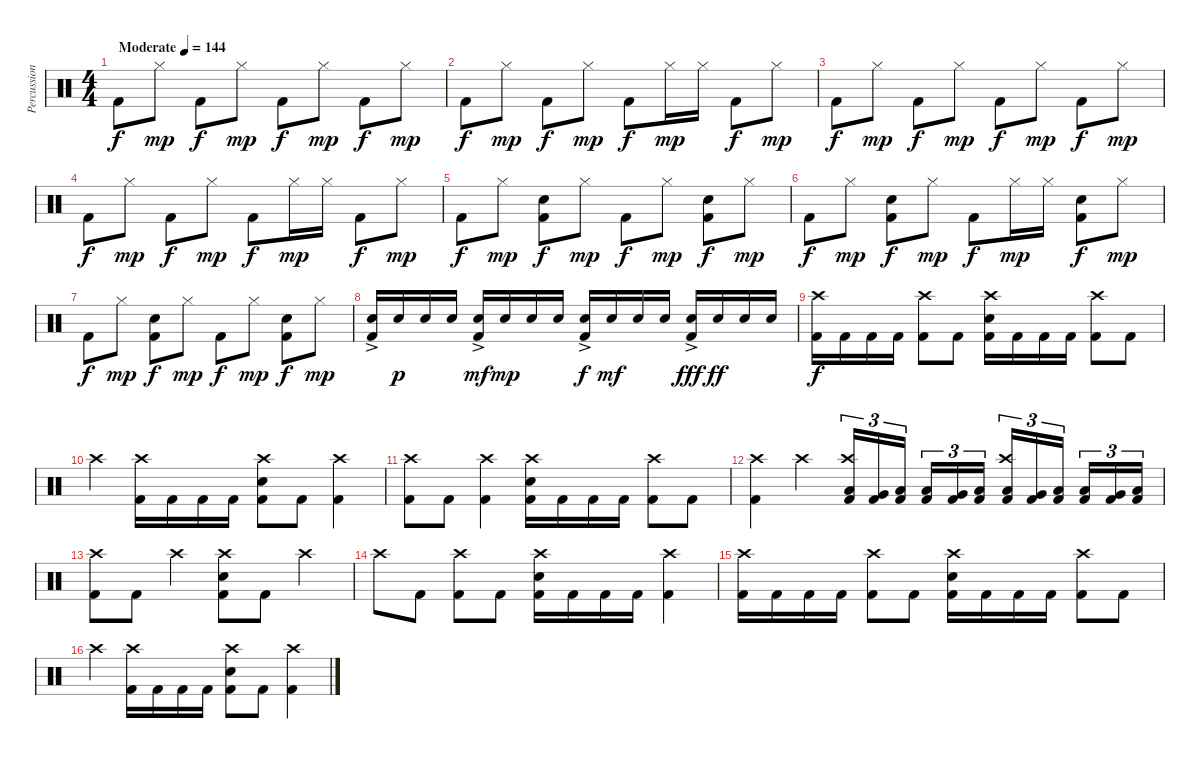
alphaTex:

\track ("Percussion" "Percussion") {instrument percussion}
\staff {score}
\articulation defaults
\ts (4 4)
\tempo (144 "Moderate")
\clef neutral
\ks c "Kick (hit) 2".8{dy f} "Hi-Hat (closed)".8{dy mp} "Kick (hit) 2".8{dy f} "Hi-Hat (closed)".8{dy mp} "Kick (hit) 2".8{dy f} "Hi-Hat (closed)".8{dy mp} "Kick (hit) 2".8{dy f} "Hi-Hat (closed)".8{dy mp}
|
"Kick (hit) 2".8{dy f} "Hi-Hat (closed)".8{dy mp} "Kick (hit) 2".8{dy f} "Hi-Hat (closed)".8{dy mp} "Kick (hit) 2".8{dy f} "Hi-Hat (closed)".16{dy mp} "Hi-Hat (closed)".16 "Kick (hit) 2".8{dy f} "Hi-Hat (closed)".8{dy mp} |
"Kick (hit) 2".8{dy f} "Hi-Hat (closed)".8{dy mp} "Kick (hit) 2".8{dy f} "Hi-Hat (closed)".8{dy mp} "Kick (hit) 2".8{dy f} "Hi-Hat (closed)".8{dy mp} "Kick (hit) 2".8{dy f} "Hi-Hat (closed)".8{dy mp} |
"Kick (hit) 2".8{dy f} "Hi-Hat (closed)".8{dy mp} "Kick (hit) 2".8{dy f} "Hi-Hat (closed)".8{dy mp} "Kick (hit) 2".8{dy f} "Hi-Hat (closed)".16{dy mp} "Hi-Hat (closed)".16 "Kick (hit) 2".8{dy f} "Hi-Hat (closed)".8{dy mp} |
"Kick (hit) 2".8{dy f} "Hi-Hat (closed)".8{dy mp} ("Snare (hit) 2" "Kick (hit) 2").8{dy f} "Hi-Hat (closed)".8{dy mp} "Kick (hit) 2".8{dy f} "Hi-Hat (closed)".8{dy mp} ("Snare (hit) 2" "Kick (hit) 2").8{dy f} "Hi-Hat (closed)".8{dy mp} |
"Kick (hit) 2".8{dy f} "Hi-Hat (closed)".8{dy mp} ("Snare (hit) 2" "Kick (hit) 2").8{dy f} "Hi-Hat (closed)".8{dy mp} "Kick (hit) 2".8{dy f} "Hi-Hat (closed)".16{dy mp} "Hi-Hat (closed)".16 ("Snare (hit) 2" "Kick (hit) 2").8{dy f} "Hi-Hat (closed)".8{dy mp} |
"Kick (hit) 2".8{dy f} "Hi-Hat (closed)".8{dy mp} ("Snare (hit) 2" "Kick (hit) 2").8{dy f} "Hi-Hat (closed)".8{dy mp} "Kick (hit) 2".8{dy f} "Hi-Hat (closed)".8{dy mp} ("Snare (hit) 2" "Kick (hit) 2").8{dy f} "Hi-Hat (closed)".8{dy mp} |
("Snare (hit) 2"{ac} "Kick (hit) 2").16 "Snare (hit) 2".16{dy p} "Snare (hit) 2".16 "Snare (hit) 2".16 ("Snare (hit) 2"{ac} "Kick (hit) 2").16{dy mf} "Snare (hit) 2".16{dy mp} "Snare (hit) 2".16 "Snare (hit) 2".16 ("Snare (hit) 2"{ac} "Kick (hit) 2").16{dy f} "Snare (hit) 2".16{dy mf} "Snare (hit) 2".16 "Snare (hit) 2".16 ("Snare (hit) 2"{ac} "Kick (hit) 2").16{dy fff} "Snare (hit) 2".16{dy ff} "Snare (hit) 2".16 "Snare (hit) 2".16 |
("Crash high (hit)" "Kick (hit) 2").16{dy f} "Kick (hit) 2".16 "Kick (hit) 2".16 "Kick (hit) 2".16 ("Crash high (hit)" "Kick (hit) 2").8 "Kick (hit) 2".8 ("Crash high (hit)" "Snare (hit) 2" "Kick (hit) 2").16 "Kick (hit) 2".16 "Kick (hit) 2".16 "Kick (hit) 2".16 ("Crash high (hit)" "Kick (hit) 2").8 "Kick (hit) 2".8 |
"Crash high (hit)".4 ("Crash high (hit)" "Kick (hit) 2").16 "Kick (hit) 2".16 "Kick (hit) 2".16 "Kick (hit) 2".16 ("Crash high (hit)" "Snare (hit) 2" "Kick (hit) 2").8 "Kick (hit) 2".8 ("Crash high (hit)" "Kick (hit) 2").4 |
("Crash high (hit)" "Kick (hit) 2").8 "Kick (hit) 2".8 ("Crash high (hit)" "Kick (hit) 2").4 ("Crash high (hit)" "Snare (hit) 2" "Kick (hit) 2").16 "Kick (hit) 2".16 "Kick (hit) 2".16 "Kick (hit) 2".16 ("Crash high (hit)" "Kick (hit) 2").8 "Kick (hit) 2".8 |
("Crash high (hit)" "Kick (hit) 2").4 "Crash high (hit)".4 ("Crash high (hit)" "Low Tom (hit)" "Kick (hit) 2").16{tu (3 2)} ("Very Low Tom (hit)" "Kick (hit) 2").16{tu (3 2)} ("Low Floor Tom (hit)" "Kick (hit) 2").16{tu (3 2) beam splitsecondary} ("Low Tom (hit)" "Kick (hit) 2").16{tu (3 2)} ("Very Low Tom (hit)" "Kick (hit) 2").16{tu (3 2)} ("Low Floor Tom (hit)" "Kick (hit) 2").16{tu (3 2)} ("Crash high (hit)" "Low Tom (hit)" "Kick (hit) 2").16{tu (3 2)} ("Very Low Tom (hit)" "Kick (hit) 2").16{tu (3 2)} ("Low Floor Tom (hit)" "Kick (hit) 2").16{tu (3 2) beam splitsecondary} ("Low Tom (hit)" "Kick (hit) 2").16{tu (3 2)} ("Very Low Tom (hit)" "Kick (hit) 2").16{tu (3 2)} ("Low Floor Tom (hit)" "Kick (hit) 2").16{tu (3 2)} |
("Crash high (hit)" "Kick (hit) 2").8 "Kick (hit) 2".8 "Crash high (hit)".4 ("Crash high (hit)" "Snare (hit) 2" "Kick (hit) 2").8 "Kick (hit) 2".8 "Crash high (hit)".4 |
"Crash high (hit)".8 "Kick (hit) 2".8 ("Crash high (hit)" "Kick (hit) 2").8 "Kick (hit) 2".8 ("Crash high (hit)" "Snare (hit) 2" "Kick (hit) 2").16 "Kick (hit) 2".16 "Kick (hit) 2".16 "Kick (hit) 2".16 ("Crash high (hit)" "Kick (hit) 2").4 |
("Crash high (hit)" "Kick (hit) 2").16 "Kick (hit) 2".16 "Kick (hit) 2".16 "Kick (hit) 2".16 ("Crash high (hit)" "Kick (hit) 2").8 "Kick (hit) 2".8 ("Crash high (hit)" "Snare (hit) 2" "Kick (hit) 2").16 "Kick (hit) 2".16 "Kick (hit) 2".16 "Kick (hit) 2".16 ("Crash high (hit)" "Kick (hit) 2").8 "Kick (hit) 2".8 |
"Crash high (hit)".4 ("Crash high (hit)" "Kick (hit) 2").16 "Kick (hit) 2".16 "Kick (hit) 2".16 "Kick (hit) 2".16 ("Crash high (hit)" "Snare (hit) 2" "Kick (hit) 2").8 "Kick (hit) 2".8 ("Crash high (hit)" "Kick (hit) 2").4
